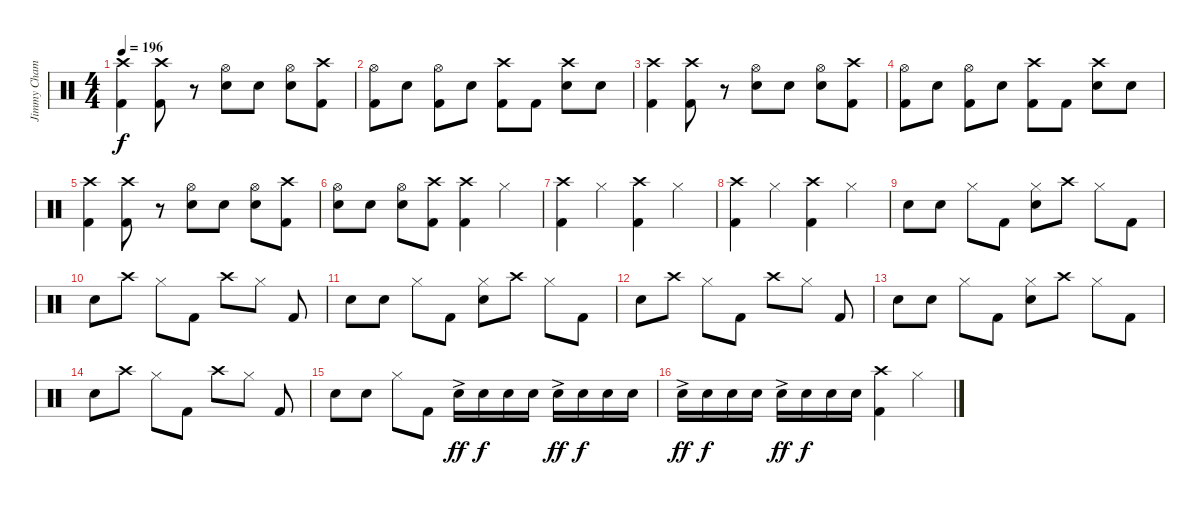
\track ("Jimmy Chamberlin" "Jimmy Cham") {instrument percussion}
\staff {score}
\articulation defaults
\ts (4 4)
\tempo 196
\clef neutral
\ks c
("Crash high (hit)" "Kick (hit) 2").4{dy f} ("Crash high (hit)" "Kick (hit) 2").8 r.8 ("Hi-Hat (open)" "Electric Snare (hit)").8 "Electric Snare (hit)".8 ("Hi-Hat (open)" "Electric Snare (hit)").8 ("Crash high (hit)" "Kick (hit) 2").8 |
("Hi-Hat (open)" "Kick (hit) 2").8 "Electric Snare (hit)".8 ("Hi-Hat (open)" "Kick (hit) 2").8 "Electric Snare (hit)".8 ("Crash high (hit)" "Kick (hit) 2").8 "Kick (hit) 2".8 ("Crash high (hit)" "Electric Snare (hit)").8 "Electric Snare (hit)".8 |
("Crash high (hit)" "Kick (hit) 2").4 ("Crash high (hit)" "Kick (hit) 2").8 r.8 ("Hi-Hat (open)" "Electric Snare (hit)").8 "Electric Snare (hit)".8 ("Hi-Hat (open)" "Electric Snare (hit)").8 ("Crash high (hit)" "Kick (hit) 2").8 |
("Hi-Hat (open)" "Kick (hit) 2").8 "Electric Snare (hit)".8 ("Hi-Hat (open)" "Kick (hit) 2").8 "Electric Snare (hit)".8 ("Crash high (hit)" "Kick (hit) 2").8 "Kick (hit) 2".8 ("Crash high (hit)" "Electric Snare (hit)").8 "Electric Snare (hit)".8 |
("Crash high (hit)" "Kick (hit) 2").4 ("Crash high (hit)" "Kick (hit) 2").8 r.8 ("Hi-Hat (open)" "Electric Snare (hit)").8 "Electric Snare (hit)".8 ("Hi-Hat (open)" "Electric Snare (hit)").8 ("Crash high (hit)" "Kick (hit) 2").8 |
("Hi-Hat (open)" "Electric Snare (hit)").8 "Electric Snare (hit)".8 ("Hi-Hat (open)" "Electric Snare (hit)").8 ("Crash high (hit)" "Kick (hit) 2").8 ("Crash high (hit)" "Kick (hit) 2").4 "Hi-Hat (closed)".4 |
("Crash high (hit)" "Kick (hit) 2").4 "Hi-Hat (closed)".4 ("Crash high (hit)" "Kick (hit) 2").4 "Hi-Hat (closed)".4 |
("Crash high (hit)" "Kick (hit) 2").4 "Hi-Hat (closed)".4 ("Crash high (hit)" "Kick (hit) 2").4 "Hi-Hat (closed)".4 |
"Electric Snare (hit)".8 "Electric Snare (hit)".8 "Hi-Hat (closed)".8 "Kick (hit) 2".8 ("Hi-Hat (closed)" "Electric Snare (hit)").8 "Crash high (hit)".8 "Hi-Hat (closed)".8 "Kick (hit) 2".8 |
"Electric Snare (hit)".8 "Crash high (hit)".8 "Hi-Hat (closed)".8 "Kick (hit) 2".8 "Crash high (hit)".8 "Hi-Hat (closed)".8 "Kick (hit) 2".8 |
"Electric Snare (hit)".8 "Electric Snare (hit)".8 "Hi-Hat (closed)".8 "Kick (hit) 2".8 ("Hi-Hat (closed)" "Electric Snare (hit)").8 "Crash high (hit)".8 "Hi-Hat (closed)".8 "Kick (hit) 2".8 |
"Electric Snare (hit)".8 "Crash high (hit)".8 "Hi-Hat (closed)".8 "Kick (hit) 2".8 "Crash high (hit)".8 "Hi-Hat (closed)".8 "Kick (hit) 2".8 |
"Electric Snare (hit)".8 "Electric Snare (hit)".8 "Hi-Hat (closed)".8 "Kick (hit) 2".8 ("Hi-Hat (closed)" "Electric Snare (hit)").8 "Crash high (hit)".8 "Hi-Hat (closed)".8 "Kick (hit) 2".8 |
"Electric Snare (hit)".8 "Crash high (hit)".8 "Hi-Hat (closed)".8 "Kick (hit) 2".8 "Crash high (hit)".8 "Hi-Hat (closed)".8 "Kick (hit) 2".8 |
"Electric Snare (hit)".8 "Electric Snare (hit)".8 "Hi-Hat (closed)".8 "Kick (hit) 2".8 "Electric Snare (hit)"{ac}.16{dy ff} "Electric Snare (hit)".16{dy f} "Electric Snare (hit)".16 "Electric Snare (hit)".16 "Electric Snare (hit)"{ac}.16{dy ff} "Electric Snare (hit)".16{dy f} "Electric Snare (hit)".16 "Electric Snare (hit)".16 |
"Electric Snare (hit)"{ac}.16{dy ff} "Electric Snare (hit)".16{dy f} "Electric Snare (hit)".16 "Electric Snare (hit)".16 "Electric Snare (hit)"{ac}.16{dy ff} "Electric Snare (hit)".16{dy f} "Electric Snare (hit)".16 "Electric Snare (hit)".16 ("Crash high (hit)" "Kick (hit) 2").4 "Hi-Hat (closed)".4
